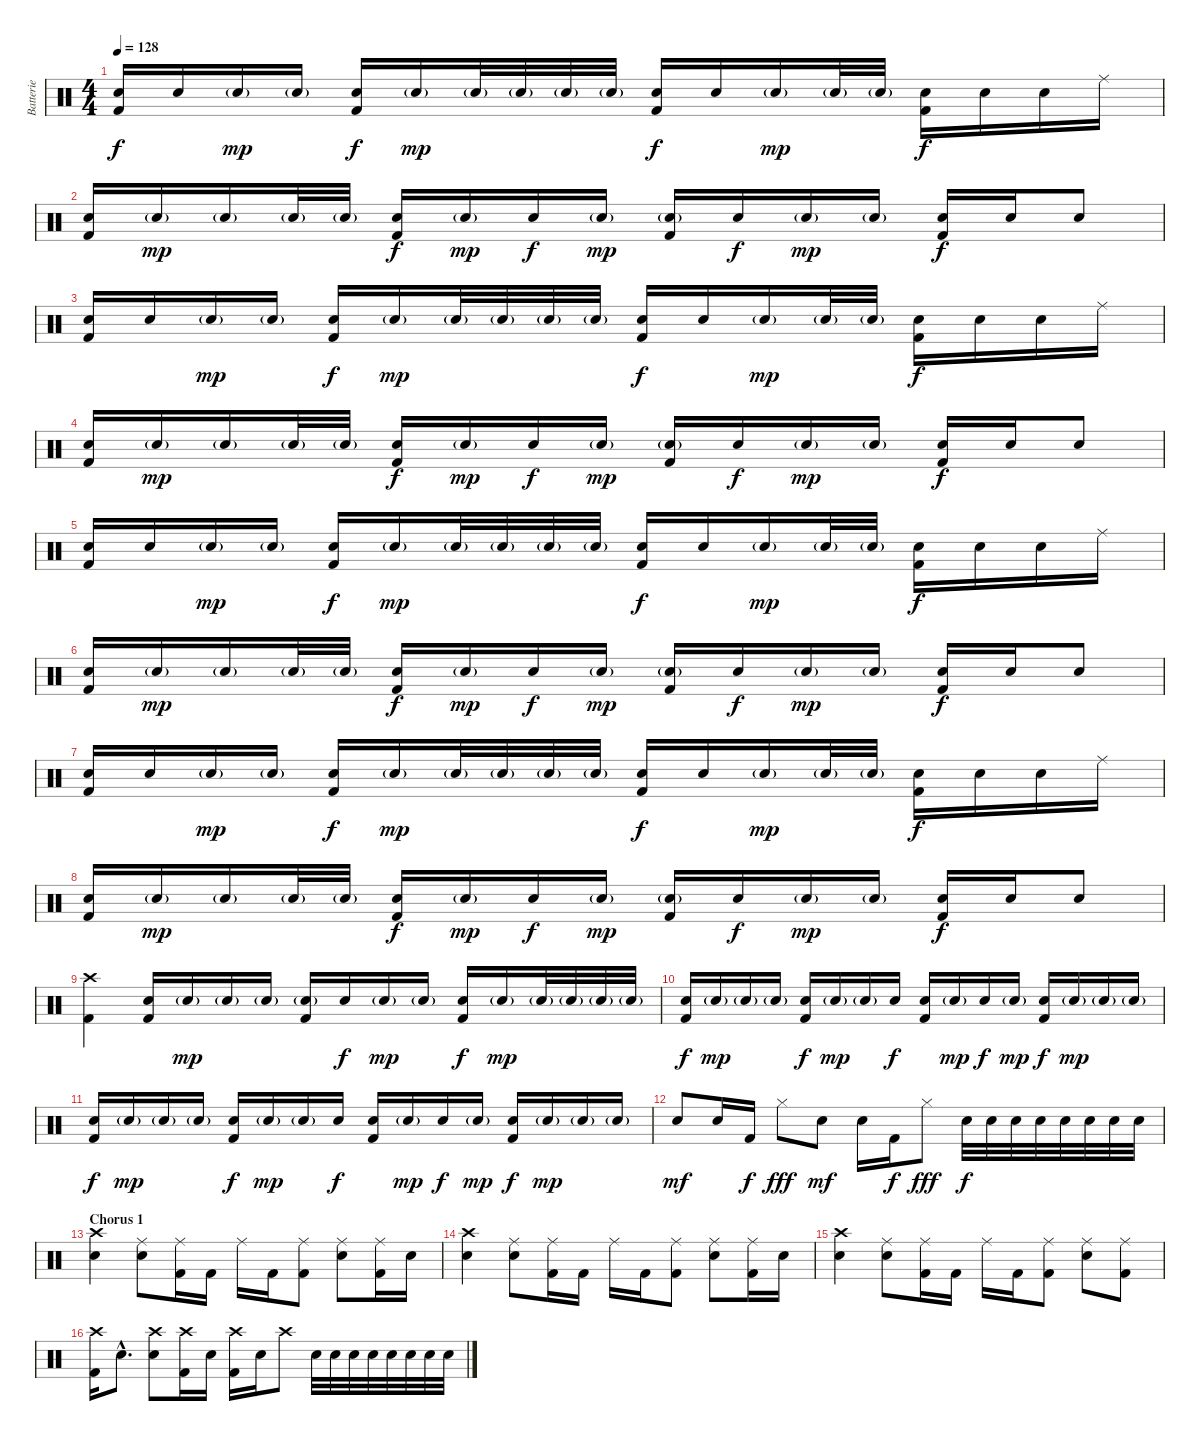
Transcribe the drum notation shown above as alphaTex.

\track ("Batterie" "Batterie") {instrument percussion}
\staff {score}
\articulation defaults
\ts (4 4)
\tempo 128
\clef neutral
\ks c
("Electric Snare (hit)" "Kick (hit) 2").16{dy f} "Electric Snare (hit)".16 "Electric Snare (hit)"{g}.16{dy mp} "Electric Snare (hit)"{g}.16 ("Electric Snare (hit)" "Kick (hit) 2").16{dy f} "Electric Snare (hit)"{g}.16{dy mp} "Electric Snare (hit)"{g}.32 "Electric Snare (hit)"{g}.32 "Electric Snare (hit)"{g}.32 "Electric Snare (hit)"{g}.32 ("Electric Snare (hit)" "Kick (hit) 2").16{dy f} "Electric Snare (hit)".16 "Electric Snare (hit)"{g}.16{dy mp} "Electric Snare (hit)"{g}.32 "Electric Snare (hit)"{g}.32 ("Electric Snare (hit)" "Kick (hit) 2").16{dy f} "Electric Snare (hit)".16 "Electric Snare (hit)".16 "Ride (middle)".16 |
("Electric Snare (hit)" "Kick (hit) 2").16 "Electric Snare (hit)"{g}.16{dy mp} "Electric Snare (hit)"{g}.16 "Electric Snare (hit)"{g}.32 "Electric Snare (hit)"{g}.32 ("Electric Snare (hit)" "Kick (hit) 2").16{dy f} "Electric Snare (hit)"{g}.16{dy mp} "Electric Snare (hit)".16{dy f} "Electric Snare (hit)"{g}.16{dy mp} ("Electric Snare (hit)"{g} "Kick (hit) 2").16 "Electric Snare (hit)".16{dy f} "Electric Snare (hit)"{g}.16{dy mp} "Electric Snare (hit)"{g}.16 ("Electric Snare (hit)" "Kick (hit) 2").16{dy f} "Electric Snare (hit)".16 "Electric Snare (hit)".8 |
("Electric Snare (hit)" "Kick (hit) 2").16 "Electric Snare (hit)".16 "Electric Snare (hit)"{g}.16{dy mp} "Electric Snare (hit)"{g}.16 ("Electric Snare (hit)" "Kick (hit) 2").16{dy f} "Electric Snare (hit)"{g}.16{dy mp} "Electric Snare (hit)"{g}.32 "Electric Snare (hit)"{g}.32 "Electric Snare (hit)"{g}.32 "Electric Snare (hit)"{g}.32 ("Electric Snare (hit)" "Kick (hit) 2").16{dy f} "Electric Snare (hit)".16 "Electric Snare (hit)"{g}.16{dy mp} "Electric Snare (hit)"{g}.32 "Electric Snare (hit)"{g}.32 ("Electric Snare (hit)" "Kick (hit) 2").16{dy f} "Electric Snare (hit)".16 "Electric Snare (hit)".16 "Ride (middle)".16 |
("Electric Snare (hit)" "Kick (hit) 2").16 "Electric Snare (hit)"{g}.16{dy mp} "Electric Snare (hit)"{g}.16 "Electric Snare (hit)"{g}.32 "Electric Snare (hit)"{g}.32 ("Electric Snare (hit)" "Kick (hit) 2").16{dy f} "Electric Snare (hit)"{g}.16{dy mp} "Electric Snare (hit)".16{dy f} "Electric Snare (hit)"{g}.16{dy mp} ("Electric Snare (hit)"{g} "Kick (hit) 2").16 "Electric Snare (hit)".16{dy f} "Electric Snare (hit)"{g}.16{dy mp} "Electric Snare (hit)"{g}.16 ("Electric Snare (hit)" "Kick (hit) 2").16{dy f} "Electric Snare (hit)".16 "Electric Snare (hit)".8 |
("Electric Snare (hit)" "Kick (hit) 2").16 "Electric Snare (hit)".16 "Electric Snare (hit)"{g}.16{dy mp} "Electric Snare (hit)"{g}.16 ("Electric Snare (hit)" "Kick (hit) 2").16{dy f} "Electric Snare (hit)"{g}.16{dy mp} "Electric Snare (hit)"{g}.32 "Electric Snare (hit)"{g}.32 "Electric Snare (hit)"{g}.32 "Electric Snare (hit)"{g}.32 ("Electric Snare (hit)" "Kick (hit) 2").16{dy f} "Electric Snare (hit)".16 "Electric Snare (hit)"{g}.16{dy mp} "Electric Snare (hit)"{g}.32 "Electric Snare (hit)"{g}.32 ("Electric Snare (hit)" "Kick (hit) 2").16{dy f} "Electric Snare (hit)".16 "Electric Snare (hit)".16 "Ride (middle)".16 |
("Electric Snare (hit)" "Kick (hit) 2").16 "Electric Snare (hit)"{g}.16{dy mp} "Electric Snare (hit)"{g}.16 "Electric Snare (hit)"{g}.32 "Electric Snare (hit)"{g}.32 ("Electric Snare (hit)" "Kick (hit) 2").16{dy f} "Electric Snare (hit)"{g}.16{dy mp} "Electric Snare (hit)".16{dy f} "Electric Snare (hit)"{g}.16{dy mp} ("Electric Snare (hit)"{g} "Kick (hit) 2").16 "Electric Snare (hit)".16{dy f} "Electric Snare (hit)"{g}.16{dy mp} "Electric Snare (hit)"{g}.16 ("Electric Snare (hit)" "Kick (hit) 2").16{dy f} "Electric Snare (hit)".16 "Electric Snare (hit)".8 |
("Electric Snare (hit)" "Kick (hit) 2").16 "Electric Snare (hit)".16 "Electric Snare (hit)"{g}.16{dy mp} "Electric Snare (hit)"{g}.16 ("Electric Snare (hit)" "Kick (hit) 2").16{dy f} "Electric Snare (hit)"{g}.16{dy mp} "Electric Snare (hit)"{g}.32 "Electric Snare (hit)"{g}.32 "Electric Snare (hit)"{g}.32 "Electric Snare (hit)"{g}.32 ("Electric Snare (hit)" "Kick (hit) 2").16{dy f} "Electric Snare (hit)".16 "Electric Snare (hit)"{g}.16{dy mp} "Electric Snare (hit)"{g}.32 "Electric Snare (hit)"{g}.32 ("Electric Snare (hit)" "Kick (hit) 2").16{dy f} "Electric Snare (hit)".16 "Electric Snare (hit)".16 "Ride (middle)".16 |
("Electric Snare (hit)" "Kick (hit) 2").16 "Electric Snare (hit)"{g}.16{dy mp} "Electric Snare (hit)"{g}.16 "Electric Snare (hit)"{g}.32 "Electric Snare (hit)"{g}.32 ("Electric Snare (hit)" "Kick (hit) 2").16{dy f} "Electric Snare (hit)"{g}.16{dy mp} "Electric Snare (hit)".16{dy f} "Electric Snare (hit)"{g}.16{dy mp} ("Electric Snare (hit)"{g} "Kick (hit) 2").16 "Electric Snare (hit)".16{dy f} "Electric Snare (hit)"{g}.16{dy mp} "Electric Snare (hit)"{g}.16 ("Electric Snare (hit)" "Kick (hit) 2").16{dy f} "Electric Snare (hit)".16 "Electric Snare (hit)".8 |
("Crash high (hit)" "Kick (hit) 2").4 ("Electric Snare (hit)" "Kick (hit) 2").16 "Electric Snare (hit)"{g}.16{dy mp} "Electric Snare (hit)"{g}.16 "Electric Snare (hit)"{g}.16 ("Electric Snare (hit)"{g} "Kick (hit) 2").16 "Electric Snare (hit)".16{dy f} "Electric Snare (hit)"{g}.16{dy mp} "Electric Snare (hit)"{g}.16 ("Electric Snare (hit)" "Kick (hit) 2").16{dy f} "Electric Snare (hit)"{g}.16{dy mp} "Electric Snare (hit)"{g}.32 "Electric Snare (hit)"{g}.32 "Electric Snare (hit)"{g}.32 "Electric Snare (hit)"{g}.32 |
("Electric Snare (hit)" "Kick (hit) 2").16{dy f} "Electric Snare (hit)"{g}.16{dy mp} "Electric Snare (hit)"{g}.16 "Electric Snare (hit)"{g}.16 ("Electric Snare (hit)" "Kick (hit) 2").16{dy f} "Electric Snare (hit)"{g}.16{dy mp} "Electric Snare (hit)"{g}.16 "Electric Snare (hit)".16{dy f} ("Electric Snare (hit)" "Kick (hit) 2").16 "Electric Snare (hit)"{g}.16{dy mp} "Electric Snare (hit)".16{dy f} "Electric Snare (hit)"{g}.16{dy mp} ("Electric Snare (hit)" "Kick (hit) 2").16{dy f} "Electric Snare (hit)"{g}.16{dy mp} "Electric Snare (hit)"{g}.16 "Electric Snare (hit)"{g}.16 |
("Electric Snare (hit)" "Kick (hit) 2").16{dy f} "Electric Snare (hit)"{g}.16{dy mp} "Electric Snare (hit)"{g}.16 "Electric Snare (hit)"{g}.16 ("Electric Snare (hit)" "Kick (hit) 2").16{dy f} "Electric Snare (hit)"{g}.16{dy mp} "Electric Snare (hit)"{g}.16 "Electric Snare (hit)".16{dy f} ("Electric Snare (hit)" "Kick (hit) 2").16 "Electric Snare (hit)"{g}.16{dy mp} "Electric Snare (hit)".16{dy f} "Electric Snare (hit)"{g}.16{dy mp} ("Electric Snare (hit)" "Kick (hit) 2").16{dy f} "Electric Snare (hit)"{g}.16{dy mp} "Electric Snare (hit)"{g}.16 "Electric Snare (hit)"{g}.16 |
"Electric Snare (hit)".8{dy mf} "Electric Snare (hit)".16 "Kick (hit) 2".16{dy f} "Hi-Hat (closed)".8{dy fff} "Electric Snare (hit)".8{dy mf} "Electric Snare (hit)".16 "Kick (hit) 2".16{dy f} "Hi-Hat (closed)".8{dy fff} "Electric Snare (hit)".32{dy f} "Electric Snare (hit)".32 "Electric Snare (hit)".32 "Electric Snare (hit)".32 "Electric Snare (hit)".32 "Electric Snare (hit)".32 "Electric Snare (hit)".32 "Electric Snare (hit)".32 |
\section ("" "Chorus 1")
("Crash high (hit)" "Electric Snare (hit)").4 ("Ride (middle)" "Electric Snare (hit)").8 ("Ride (middle)" "Kick (hit) 2").16 "Kick (hit) 2".16 "Ride (middle)".16 "Kick (hit) 2".16 ("Ride (middle)" "Kick (hit) 2").8 ("Ride (middle)" "Electric Snare (hit)").8 ("Ride (middle)" "Kick (hit) 2").16 "Electric Snare (hit)".16 |
("Crash high (hit)" "Electric Snare (hit)").4 ("Ride (middle)" "Electric Snare (hit)").8 ("Ride (middle)" "Kick (hit) 2").16 "Kick (hit) 2".16 "Ride (middle)".16 "Kick (hit) 2".16 ("Ride (middle)" "Kick (hit) 2").8 ("Ride (middle)" "Electric Snare (hit)").8 ("Ride (middle)" "Kick (hit) 2").16 "Electric Snare (hit)".16 |
("Crash high (hit)" "Electric Snare (hit)").4 ("Ride (middle)" "Electric Snare (hit)").8 ("Ride (middle)" "Kick (hit) 2").16 "Kick (hit) 2".16 "Ride (middle)".16 "Kick (hit) 2".16 ("Ride (middle)" "Kick (hit) 2").8 ("Ride (middle)" "Electric Snare (hit)").8 ("Ride (middle)" "Kick (hit) 2").8 |
("Crash high (hit)" "Kick (hit) 2").16 "Electric Snare (hit)"{hac}.8{d} ("Crash high (hit)" "Electric Snare (hit)").8 ("Crash high (hit)" "Kick (hit) 2").16 "Electric Snare (hit)".16 ("Crash high (hit)" "Kick (hit) 2").16 "Electric Snare (hit)".16 "Crash high (hit)".8 "Electric Snare (hit)".32 "Electric Snare (hit)".32 "Electric Snare (hit)".32 "Electric Snare (hit)".32 "Electric Snare (hit)".32 "Electric Snare (hit)".32 "Electric Snare (hit)".32 "Electric Snare (hit)".32
